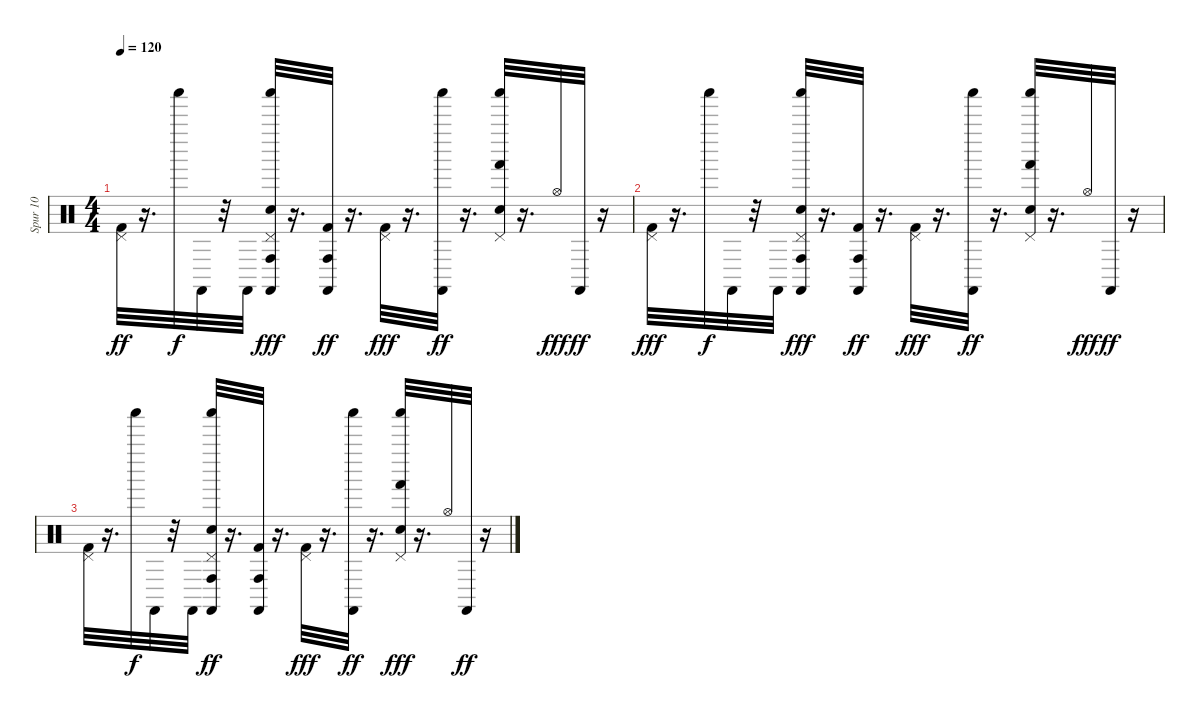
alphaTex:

\track ("Spur 10" "Spur 10") {instrument percussion}
\staff {score}
\articulation defaults
\ts (4 4)
\tempo 120
\clef neutral
\ks c
("Kick (hit) 2" "Pedal Hi-Hat (hit)").32{dy ff} r.16{d} "Shaker (hit)".32{dy f} "Castanets (hit)".32 r.32 "Castanets (hit)".32 ("Castanets (hit)" "Pedal Hi-Hat (hit)" "Shaker (hit)" "Conga high (hit)" "Snare (hit) 2").32{dy fff} r.16{d} ("Castanets (hit)" "Conga high (hit)" "Kick (hit) 2").32{dy ff} r.16{d} ("Pedal Hi-Hat (hit)" "Kick (hit) 2").32{dy fff} r.16{d} ("Shaker (hit)" "Castanets (hit)").32{dy ff} r.16{d} ("Pedal Hi-Hat (hit)" "Hand (hit)" "Snare (hit) 2" "Shaker (hit)").32 r.16{d} "Hi-Hat (open)".32{dy fff} "Castanets (hit)".32{dy ff} r.16 |
("Pedal Hi-Hat (hit)" "Kick (hit) 2").32{dy fff} r.16{d} "Shaker (hit)".32{dy f} "Castanets (hit)".32 r.32 "Castanets (hit)".32 ("Pedal Hi-Hat (hit)" "Castanets (hit)" "Snare (hit) 2" "Conga high (hit)" "Shaker (hit)").32{dy fff} r.16{d} ("Kick (hit) 2" "Conga high (hit)" "Castanets (hit)").32{dy ff} r.16{d} ("Pedal Hi-Hat (hit)" "Kick (hit) 2").32{dy fff} r.16{d} ("Shaker (hit)" "Castanets (hit)").32{dy ff} r.16{d} ("Hand (hit)" "Snare (hit) 2" "Pedal Hi-Hat (hit)" "Shaker (hit)").32 r.16{d} "Hi-Hat (open)".32{dy fff} "Castanets (hit)".32{dy ff} r.16 |
("Kick (hit) 2" "Pedal Hi-Hat (hit)").32 r.16{d} "Shaker (hit)".32{dy f} "Castanets (hit)".32 r.32 "Castanets (hit)".32 ("Pedal Hi-Hat (hit)" "Shaker (hit)" "Snare (hit) 2" "Conga high (hit)" "Castanets (hit)").32{dy ff} r.16{d} ("Conga high (hit)" "Kick (hit) 2" "Castanets (hit)").32 r.16{d} ("Pedal Hi-Hat (hit)" "Kick (hit) 2").32{dy fff} r.16{d} ("Castanets (hit)" "Shaker (hit)").32{dy ff} r.16{d} ("Hand (hit)" "Shaker (hit)" "Pedal Hi-Hat (hit)" "Snare (hit) 2").32{dy fff} r.16{d} "Hi-Hat (open)".32 "Castanets (hit)".32{dy ff} r.16
